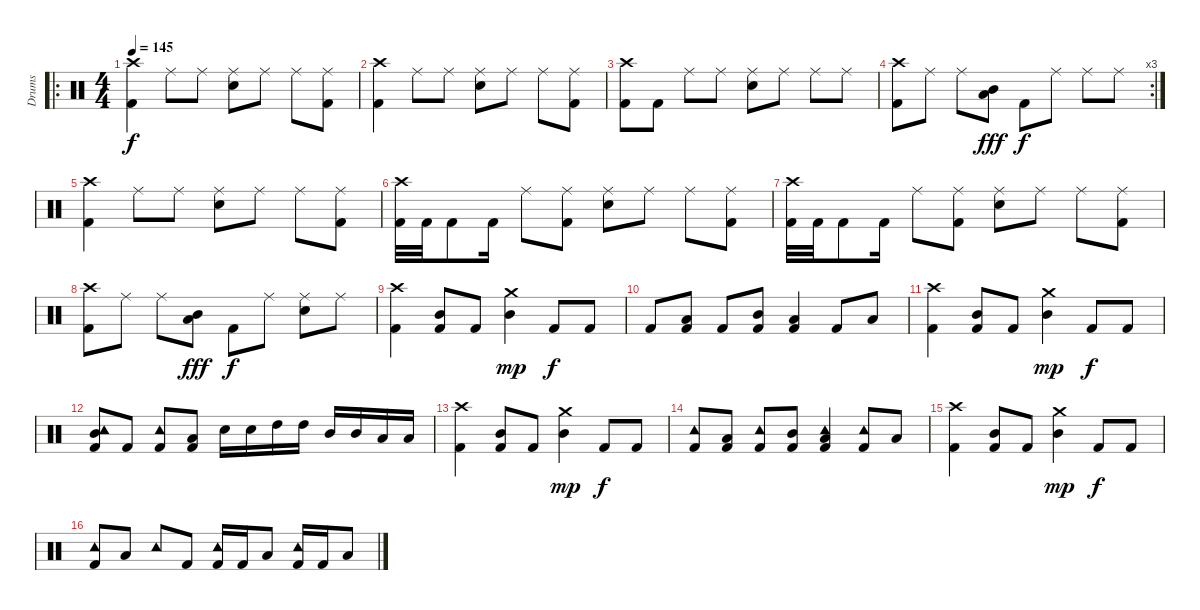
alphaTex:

\track ("Drums" "Drums") {instrument percussion}
\staff {score}
\articulation defaults
\ro
\ts (4 4)
\tempo 145
\clef neutral
\ks c
("Crash high (hit)" "Kick (hit) 2").4{dy f} "Ride (middle)".8 "Ride (middle)".8 ("Ride (middle)" "Electric Snare (hit)").8 "Ride (middle)".8 "Ride (middle)".8 ("Ride (middle)" "Kick (hit) 2").8 |
("Crash high (hit)" "Kick (hit) 2").4 "Ride (middle)".8 "Ride (middle)".8 ("Ride (middle)" "Electric Snare (hit)").8 "Ride (middle)".8 "Ride (middle)".8 ("Ride (middle)" "Kick (hit) 2").8 |
("Crash high (hit)" "Kick (hit) 2").8 "Kick (hit) 2".8 "Ride (middle)".8 "Ride (middle)".8 ("Ride (middle)" "Electric Snare (hit)").8 "Ride (middle)".8 "Ride (middle)".8 "Ride (middle)".8 |
\rc 3
("Crash high (hit)" "Kick (hit) 2").8 "Ride (middle)".8 "Ride (middle)".8 ("Mid Tom (hit)" "Low Tom (hit)").8{dy fff} "Kick (hit) 2".8{dy f} "Ride (middle)".8 "Ride (middle)".8 "Ride (middle)".8 |
("Crash high (hit)" "Kick (hit) 2").4 "Ride (middle)".8 "Ride (middle)".8 ("Ride (middle)" "Electric Snare (hit)").8 "Ride (middle)".8 "Ride (middle)".8 ("Ride (middle)" "Kick (hit) 2").8 |
("Crash high (hit)" "Kick (hit) 2").32 "Kick (hit) 2".32 "Kick (hit) 2".8 "Kick (hit) 2".16 "Ride (middle)".8 ("Ride (middle)" "Kick (hit) 2").8 ("Ride (middle)" "Electric Snare (hit)").8 "Ride (middle)".8 "Ride (middle)".8 ("Ride (middle)" "Kick (hit) 2").8 |
("Crash high (hit)" "Kick (hit) 2").32 "Kick (hit) 2".32 "Kick (hit) 2".8 "Kick (hit) 2".16 "Ride (middle)".8 ("Ride (middle)" "Kick (hit) 2").8 ("Ride (middle)" "Electric Snare (hit)").8 "Ride (middle)".8 "Ride (middle)".8 ("Ride (middle)" "Kick (hit) 2").8 |
("Crash high (hit)" "Kick (hit) 2").8 "Ride (middle)".8 "Ride (middle)".8 ("Mid Tom (hit)" "Low Tom (hit)").8{dy fff} "Kick (hit) 2".8{dy f} "Ride (middle)".8 ("Ride (middle)" "Electric Snare (hit)").8 "Ride (middle)".8 |
("Crash high (hit)" "Kick (hit) 2").4 ("Mid Tom (hit)" "Kick (hit) 2").8 "Kick (hit) 2".8 ("Crash medium (hit)" "Mid Tom (hit)").4{dy mp} "Kick (hit) 2".8{dy f} "Kick (hit) 2".8 |
"Kick (hit) 2".8 ("Low Tom (hit)" "Kick (hit) 2").8 "Kick (hit) 2".8 ("Mid Tom (hit)" "Kick (hit) 2").8 ("Low Tom (hit)" "Kick (hit) 2").4 "Kick (hit) 2".8 "Low Tom (hit)".8 |
("Crash high (hit)" "Kick (hit) 2").4 ("Mid Tom (hit)" "Kick (hit) 2").8 "Kick (hit) 2".8 ("Crash medium (hit)" "Mid Tom (hit)").4{dy mp} "Kick (hit) 2".8{dy f} "Kick (hit) 2".8 |
("Tambourine (hit)" "Mid Tom (hit)" "Kick (hit) 2").8 "Kick (hit) 2".8 ("Tambourine (hit)" "Kick (hit) 2").8 ("Low Tom (hit)" "Kick (hit) 2").8 "Electric Snare (hit)".16 "Electric Snare (hit)".16 "High Tom (hit)".16 "High Tom (hit)".16 "Mid Tom (hit)".16 "Mid Tom (hit)".16 "Low Tom (hit)".16 "Low Tom (hit)".16 |
("Crash high (hit)" "Kick (hit) 2").4 ("Mid Tom (hit)" "Kick (hit) 2").8 "Kick (hit) 2".8 ("Crash medium (hit)" "Mid Tom (hit)").4{dy mp} "Kick (hit) 2".8{dy f} "Kick (hit) 2".8 |
("Tambourine (hit)" "Kick (hit) 2").8 ("Low Tom (hit)" "Kick (hit) 2").8 ("Tambourine (hit)" "Kick (hit) 2").8 ("Mid Tom (hit)" "Kick (hit) 2").8 ("Tambourine (hit)" "Low Tom (hit)" "Kick (hit) 2").4 ("Tambourine (hit)" "Kick (hit) 2").8 "Low Tom (hit)".8 |
("Crash high (hit)" "Kick (hit) 2").4 ("Mid Tom (hit)" "Kick (hit) 2").8 "Kick (hit) 2".8 ("Crash medium (hit)" "Mid Tom (hit)").4{dy mp} "Kick (hit) 2".8{dy f} "Kick (hit) 2".8 |
("Tambourine (hit)" "Kick (hit) 2").8 "Low Tom (hit)".8 "Tambourine (hit)".8 "Kick (hit) 2".8 ("Tambourine (hit)" "Kick (hit) 2").16 "Kick (hit) 2".16 "Low Tom (hit)".8 ("Tambourine (hit)" "Kick (hit) 2").16 "Kick (hit) 2".16 "Low Tom (hit)".8
